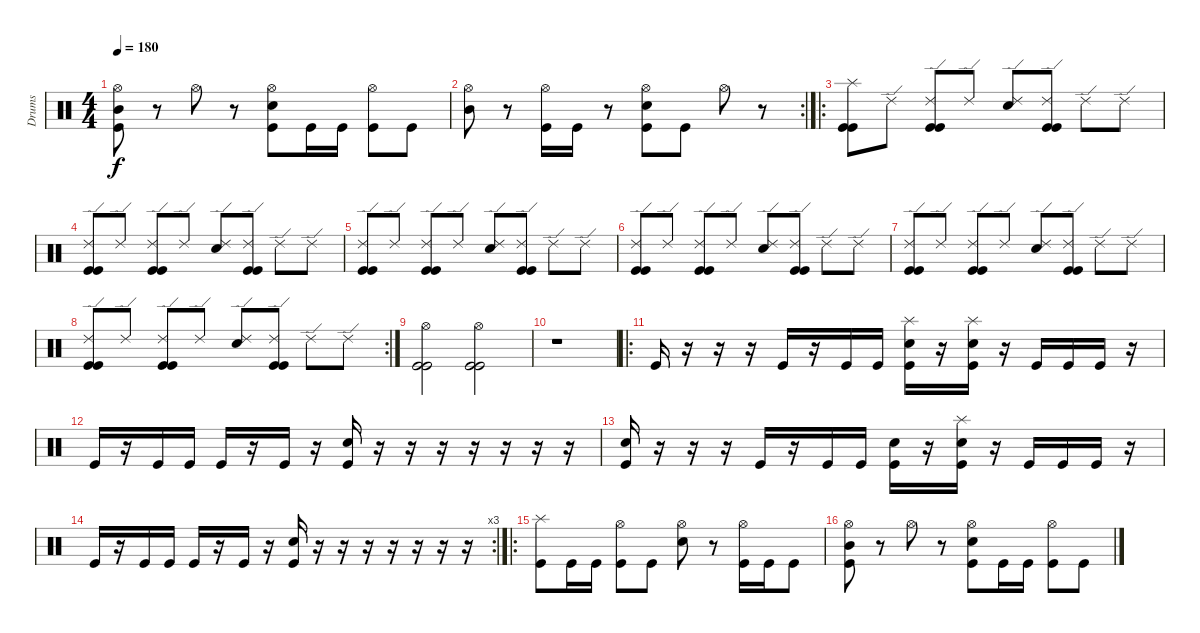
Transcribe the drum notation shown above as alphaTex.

\track ("Drums" "Drums") {instrument percussion}
\staff {score}
\articulation defaults
\ts (4 4)
\tempo 180
\clef neutral
\ks c
("Hi-Hat (open)" "Mid Tom (hit)" "Kick (hit)").8{dy f} r.8 "Hi-Hat (open)".8 r.8 ("Hi-Hat (open)" "Snare (hit) 2" "Kick (hit)").8 "Kick (hit)".16 "Kick (hit)".16 ("Hi-Hat (open)" "Kick (hit)").8 "Kick (hit)".8 |
\rc 2
("Hi-Hat (open)" "Mid Tom (hit)").8 r.8 ("Hi-Hat (open)" "Kick (hit)").16 "Kick (hit)".16 r.8 ("Hi-Hat (open)" "Snare (hit) 2" "Kick (hit)").8 "Kick (hit)".8 "Hi-Hat (open)".8 r.8 |
\ro
("Splash (hit)" "Kick (hit)" "Kick (hit)").8 "Ride (edge) 2".8 ("Ride (edge) 2" "Kick (hit)" "Kick (hit)").8 "Ride (edge) 2".8 ("Ride (edge) 2" "Snare (hit) 2").8 ("Ride (edge) 2" "Kick (hit)" "Kick (hit)").8 "Ride (edge) 2".8 "Ride (edge) 2".8 |
("Ride (edge) 2" "Kick (hit)" "Kick (hit)").8 "Ride (edge) 2".8 ("Ride (edge) 2" "Kick (hit)" "Kick (hit)").8 "Ride (edge) 2".8 ("Ride (edge) 2" "Snare (hit) 2").8 ("Ride (edge) 2" "Kick (hit)" "Kick (hit)").8 "Ride (edge) 2".8 "Ride (edge) 2".8 |
("Ride (edge) 2" "Kick (hit)" "Kick (hit)").8 "Ride (edge) 2".8 ("Ride (edge) 2" "Kick (hit)" "Kick (hit)").8 "Ride (edge) 2".8 ("Ride (edge) 2" "Snare (hit) 2").8 ("Ride (edge) 2" "Kick (hit)" "Kick (hit)").8 "Ride (edge) 2".8 "Ride (edge) 2".8 |
("Ride (edge) 2" "Kick (hit)" "Kick (hit)").8 "Ride (edge) 2".8 ("Ride (edge) 2" "Kick (hit)" "Kick (hit)").8 "Ride (edge) 2".8 ("Ride (edge) 2" "Snare (hit) 2").8 ("Ride (edge) 2" "Kick (hit)" "Kick (hit)").8 "Ride (edge) 2".8 "Ride (edge) 2".8 |
("Ride (edge) 2" "Kick (hit)" "Kick (hit)").8 "Ride (edge) 2".8 ("Ride (edge) 2" "Kick (hit)" "Kick (hit)").8 "Ride (edge) 2".8 ("Ride (edge) 2" "Snare (hit) 2").8 ("Ride (edge) 2" "Kick (hit)" "Kick (hit)").8 "Ride (edge) 2".8 "Ride (edge) 2".8 |
\rc 2
("Ride (edge) 2" "Kick (hit)" "Kick (hit)").8 "Ride (edge) 2".8 ("Ride (edge) 2" "Kick (hit)" "Kick (hit)").8 "Ride (edge) 2".8 ("Ride (edge) 2" "Snare (hit) 2").8 ("Ride (edge) 2" "Kick (hit)" "Kick (hit)").8 "Ride (edge) 2".8 "Ride (edge) 2".8 |
("Hi-Hat (open)" "Kick (hit)" "Kick (hit)").2 ("Hi-Hat (open)" "Kick (hit)" "Kick (hit)").2 |
r.1 |
\ro "Kick (hit)".16
r.16 r.16 r.16 "Kick (hit)".16 r.16 "Kick (hit)".16 "Kick (hit)".16 ("Splash (hit)" "Snare (hit) 2" "Kick (hit)").16 r.16 ("Splash (hit)" "Snare (hit) 2" "Kick (hit)").16 r.16 "Kick (hit)".16 "Kick (hit)".16 "Kick (hit)".16 r.16 |
"Kick (hit)".16 r.16 "Kick (hit)".16 "Kick (hit)".16 "Kick (hit)".16 r.16 "Kick (hit)".16 r.16 ("Snare (hit) 2" "Kick (hit)").16 r.16 r.16 r.16 r.16 r.16 r.16 r.16 |
("Snare (hit) 2" "Kick (hit)").16 r.16 r.16 r.16 "Kick (hit)".16 r.16 "Kick (hit)".16 "Kick (hit)".16 ("Snare (hit) 2" "Kick (hit)").16 r.16 ("Splash (hit)" "Snare (hit) 2" "Kick (hit)").16 r.16 "Kick (hit)".16 "Kick (hit)".16 "Kick (hit)".16 r.16 |
\rc 3 "Kick (hit)".16
r.16 "Kick (hit)".16 "Kick (hit)".16 "Kick (hit)".16 r.16 "Kick (hit)".16 r.16 ("Snare (hit) 2" "Kick (hit)").16 r.16 r.16 r.16 r.16 r.16 r.16 r.16 |
\ro
("Splash (hit)" "Kick (hit)").8 "Kick (hit)".16 "Kick (hit)".16 ("Hi-Hat (open)" "Kick (hit)").8 "Kick (hit)".8 ("Hi-Hat (open)" "Snare (hit) 2").8 r.8 ("Hi-Hat (open)" "Kick (hit)").16 "Kick (hit)".16 "Kick (hit)".8 |
("Hi-Hat (open)" "Mid Tom (hit)" "Kick (hit)").8 r.8 "Hi-Hat (open)".8 r.8 ("Hi-Hat (open)" "Snare (hit) 2" "Kick (hit)").8 "Kick (hit)".16 "Kick (hit)".16 ("Hi-Hat (open)" "Kick (hit)").8 "Kick (hit)".8
